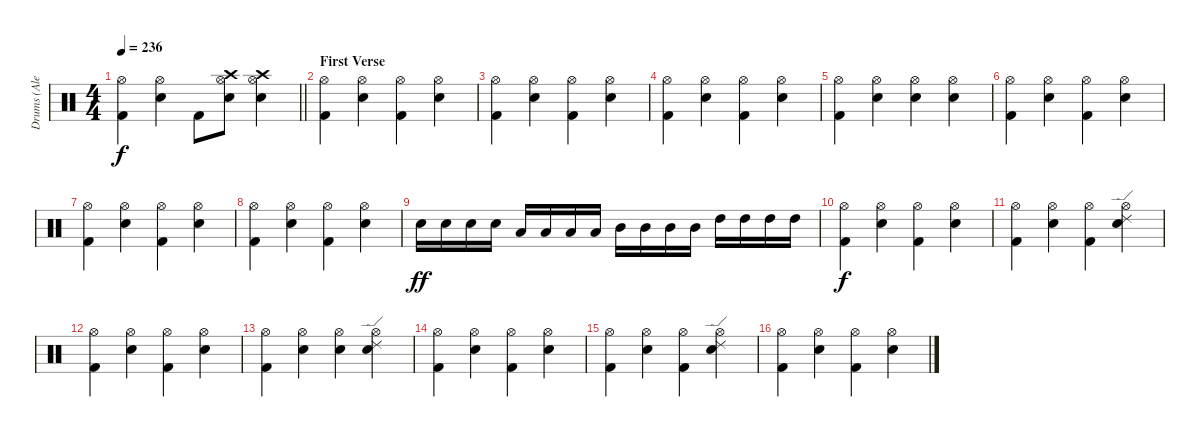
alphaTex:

\track ("Drums (Alex Van Halen)" "Drums (Ale") {instrument percussion}
\staff {score}
\articulation defaults
\ts (4 4)
\tempo 236
\clef neutral
\barLineRight lightlight
\ks c
("Hi-Hat (open)" "Kick (hit) 2").4{dy f} ("Hi-Hat (open)" "Snare (hit) 2").4 "Kick (hit) 2".8 ("Hi-Hat (open)" "Crash high (hit)" "Snare (hit) 2").8 ("Hi-Hat (open)" "Crash high (hit)" "Snare (hit) 2").4 |
\section ("" "First Verse")
("Hi-Hat (open)" "Kick (hit) 2").4 ("Hi-Hat (open)" "Snare (hit) 2").4 ("Hi-Hat (open)" "Kick (hit) 2").4 ("Hi-Hat (open)" "Snare (hit) 2").4 |
("Hi-Hat (open)" "Kick (hit) 2").4 ("Hi-Hat (open)" "Snare (hit) 2").4 ("Hi-Hat (open)" "Kick (hit) 2").4 ("Hi-Hat (open)" "Snare (hit) 2").4 |
("Hi-Hat (open)" "Kick (hit) 2").4 ("Hi-Hat (open)" "Snare (hit) 2").4 ("Hi-Hat (open)" "Kick (hit) 2").4 ("Hi-Hat (open)" "Snare (hit) 2").4 |
("Hi-Hat (open)" "Kick (hit) 2").4 ("Hi-Hat (open)" "Snare (hit) 2").4 ("Hi-Hat (open)" "Snare (hit) 2").4 ("Hi-Hat (open)" "Snare (hit) 2").4 |
("Hi-Hat (open)" "Kick (hit) 2").4 ("Hi-Hat (open)" "Snare (hit) 2").4 ("Hi-Hat (open)" "Kick (hit) 2").4 ("Hi-Hat (open)" "Snare (hit) 2").4 |
("Hi-Hat (open)" "Kick (hit) 2").4 ("Hi-Hat (open)" "Snare (hit) 2").4 ("Hi-Hat (open)" "Kick (hit) 2").4 ("Hi-Hat (open)" "Snare (hit) 2").4 |
("Hi-Hat (open)" "Kick (hit) 2").4 ("Hi-Hat (open)" "Snare (hit) 2").4 ("Hi-Hat (open)" "Kick (hit) 2").4 ("Hi-Hat (open)" "Snare (hit) 2").4 |
"Snare (hit) 2".16{dy ff} "Snare (hit) 2".16 "Snare (hit) 2".16 "Snare (hit) 2".16 "Low Tom (hit)".16 "Low Tom (hit)".16 "Low Tom (hit)".16 "Low Tom (hit)".16 "Mid Tom (hit)".16 "Mid Tom (hit)".16 "Mid Tom (hit)".16 "Mid Tom (hit)".16 "High Tom (hit)".16 "High Tom (hit)".16 "High Tom (hit)".16 "High Tom (hit)".16 |
("Hi-Hat (open)" "Kick (hit) 2").4{dy f} ("Hi-Hat (open)" "Snare (hit) 2").4 ("Hi-Hat (open)" "Kick (hit) 2").4 ("Hi-Hat (open)" "Snare (hit) 2").4 |
("Hi-Hat (open)" "Kick (hit) 2").4 ("Hi-Hat (open)" "Snare (hit) 2").4 ("Hi-Hat (open)" "Kick (hit) 2").4 ("Hi-Hat (open)" "Ride (edge) 2" "Snare (hit) 2").4 |
("Hi-Hat (open)" "Kick (hit) 2").4 ("Hi-Hat (open)" "Snare (hit) 2").4 ("Hi-Hat (open)" "Kick (hit) 2").4 ("Hi-Hat (open)" "Snare (hit) 2").4 |
("Hi-Hat (open)" "Kick (hit) 2").4 ("Hi-Hat (open)" "Snare (hit) 2").4 ("Hi-Hat (open)" "Snare (hit) 2").4 ("Hi-Hat (open)" "Ride (edge) 2" "Snare (hit) 2").4 |
("Hi-Hat (open)" "Kick (hit) 2").4 ("Hi-Hat (open)" "Snare (hit) 2").4 ("Hi-Hat (open)" "Kick (hit) 2").4 ("Hi-Hat (open)" "Snare (hit) 2").4 |
("Hi-Hat (open)" "Kick (hit) 2").4 ("Hi-Hat (open)" "Snare (hit) 2").4 ("Hi-Hat (open)" "Kick (hit) 2").4 ("Hi-Hat (open)" "Ride (edge) 2" "Snare (hit) 2").4 |
("Hi-Hat (open)" "Kick (hit) 2").4 ("Hi-Hat (open)" "Snare (hit) 2").4 ("Hi-Hat (open)" "Kick (hit) 2").4 ("Hi-Hat (open)" "Snare (hit) 2").4
